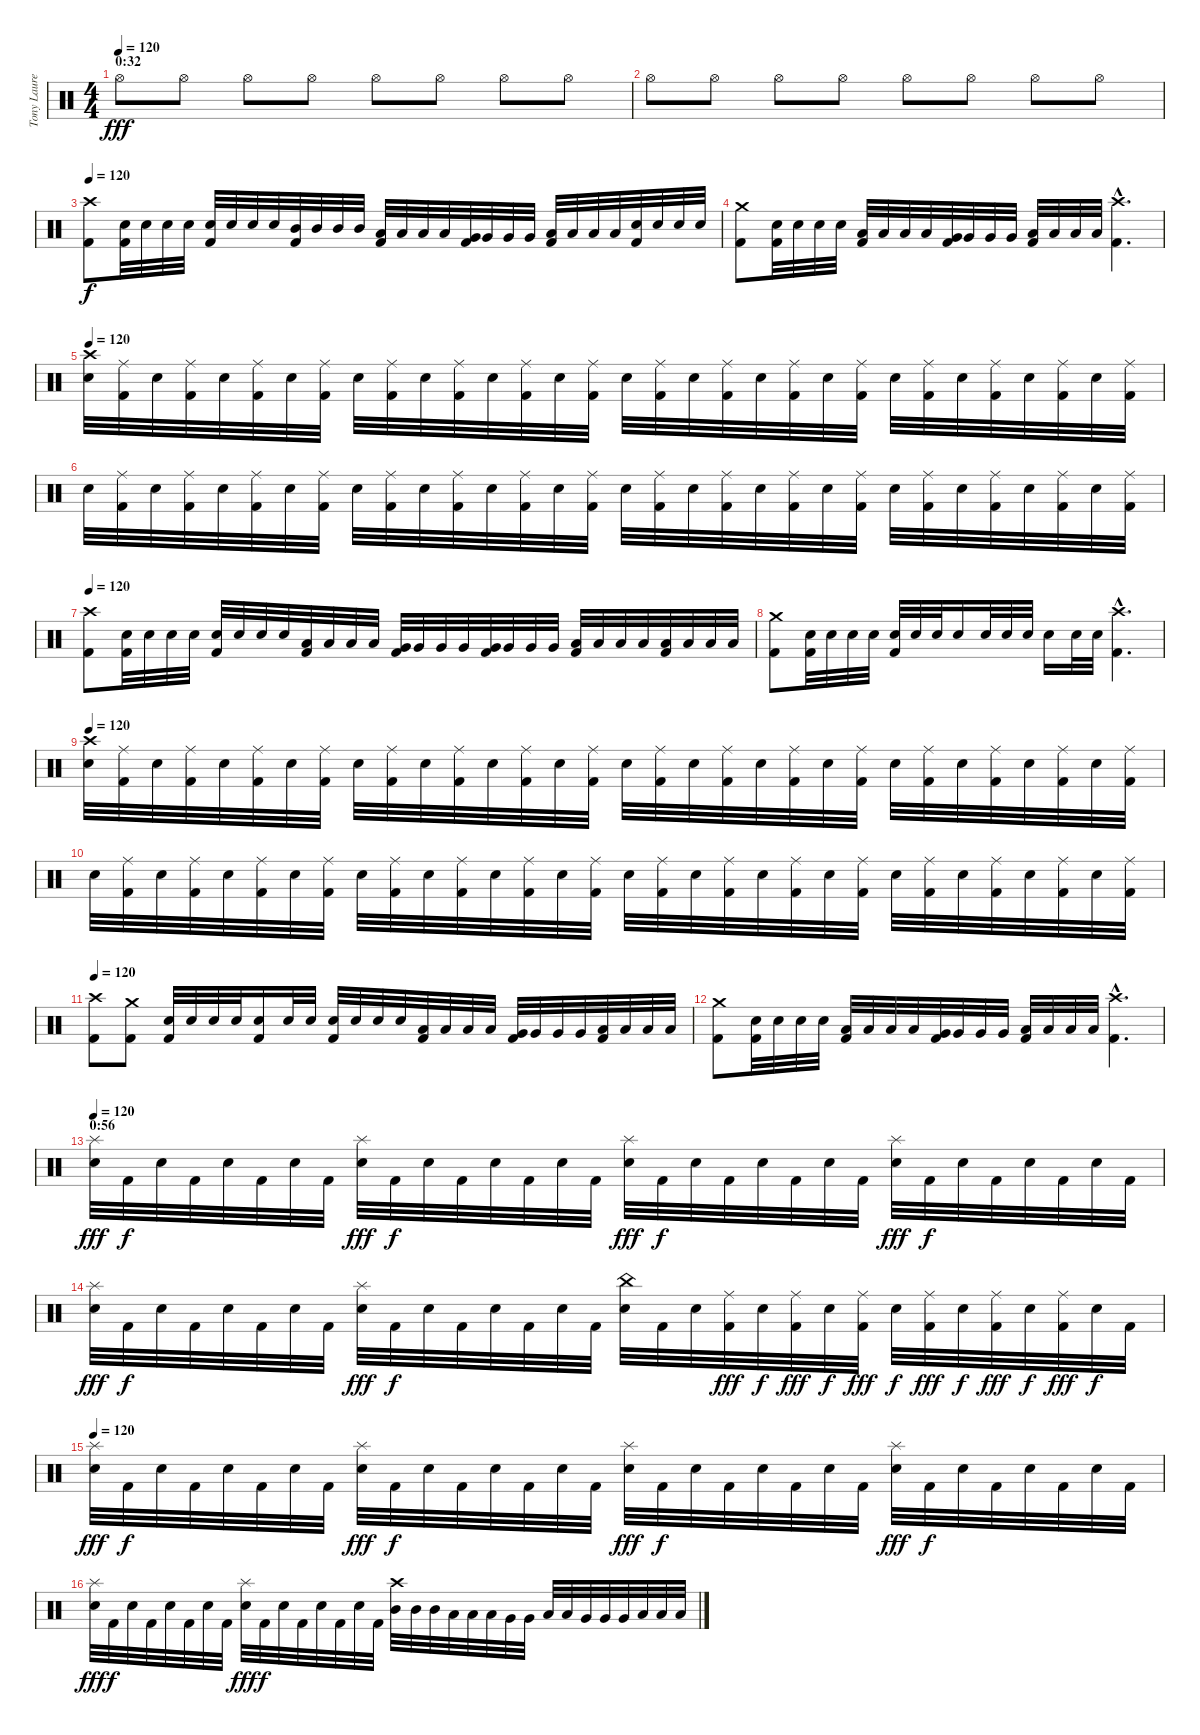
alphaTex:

\track ("Tony Laureano" "Tony Laure") {instrument percussion}
\staff {score}
\articulation defaults
\ts (4 4)
\section ("" "0:32")
\tempo 120
\clef neutral
\ks c "Hi-Hat (open)".8{dy fff} "Hi-Hat (open)".8 "Hi-Hat (open)".8 "Hi-Hat (open)".8 "Hi-Hat (open)".8 "Hi-Hat (open)".8 "Hi-Hat (open)".8 "Hi-Hat (open)".8
|
"Hi-Hat (open)".8 "Hi-Hat (open)".8 "Hi-Hat (open)".8 "Hi-Hat (open)".8 "Hi-Hat (open)".8 "Hi-Hat (open)".8 "Hi-Hat (open)".8 "Hi-Hat (open)".8 |
\tempo 120
("Crash high (hit)" "Kick (hit) 2").8{dy f} ("Electric Snare (hit)" "Kick (hit) 2").32 "Electric Snare (hit)".32 "Electric Snare (hit)".32 "Electric Snare (hit)".32 ("Electric Snare (hit)" "Kick (hit) 2").32 "Electric Snare (hit)".32 "Electric Snare (hit)".32 "Electric Snare (hit)".32 ("Mid Tom (hit)" "Kick (hit) 2").32 "Mid Tom (hit)".32 "Mid Tom (hit)".32 "Mid Tom (hit)".32 ("Low Tom (hit)" "Kick (hit) 2").32 "Low Tom (hit)".32 "Low Tom (hit)".32 "Low Tom (hit)".32 ("Very Low Tom (hit)" "Kick (hit) 2").32 "Very Low Tom (hit)".32 "Very Low Tom (hit)".32 "Very Low Tom (hit)".32 ("Low Floor Tom (hit)" "Kick (hit) 2").32 "Low Floor Tom (hit)".32 "Low Floor Tom (hit)".32 "Low Floor Tom (hit)".32 ("Electric Snare (hit)" "Kick (hit) 2").32 "Electric Snare (hit)".32 "Electric Snare (hit)".32 "Electric Snare (hit)".32 |
("Crash medium (hit)" "Kick (hit) 2").8 ("Electric Snare (hit)" "Kick (hit) 2").32 "Electric Snare (hit)".32 "Electric Snare (hit)".32 "Electric Snare (hit)".32 ("Low Tom (hit)" "Kick (hit) 2").32 "Low Tom (hit)".32 "Low Tom (hit)".32 "Low Tom (hit)".32 ("Very Low Tom (hit)" "Kick (hit) 2").32 "Very Low Tom (hit)".32 "Very Low Tom (hit)".32 "Very Low Tom (hit)".32 ("Low Floor Tom (hit)" "Kick (hit) 2").32 "Low Floor Tom (hit)".32 "Low Floor Tom (hit)".32 "Low Floor Tom (hit)".32 ("Crash high (hit)"{hac} "Kick (hit) 2"{hac}).4{d} |
\tempo 120
("Crash high (hit)" "Electric Snare (hit)").32 ("Ride (middle)" "Kick (hit) 2").32 "Electric Snare (hit)".32 ("Ride (middle)" "Kick (hit) 2").32 "Electric Snare (hit)".32 ("Ride (middle)" "Kick (hit) 2").32 "Electric Snare (hit)".32 ("Ride (middle)" "Kick (hit) 2").32 "Electric Snare (hit)".32 ("Ride (middle)" "Kick (hit) 2").32 "Electric Snare (hit)".32 ("Ride (middle)" "Kick (hit) 2").32 "Electric Snare (hit)".32 ("Ride (middle)" "Kick (hit) 2").32 "Electric Snare (hit)".32 ("Ride (middle)" "Kick (hit) 2").32 "Electric Snare (hit)".32 ("Ride (middle)" "Kick (hit) 2").32 "Electric Snare (hit)".32 ("Ride (middle)" "Kick (hit) 2").32 "Electric Snare (hit)".32 ("Ride (middle)" "Kick (hit) 2").32 "Electric Snare (hit)".32 ("Ride (middle)" "Kick (hit) 2").32 "Electric Snare (hit)".32 ("Ride (middle)" "Kick (hit) 2").32 "Electric Snare (hit)".32 ("Ride (middle)" "Kick (hit) 2").32 "Electric Snare (hit)".32 ("Ride (middle)" "Kick (hit) 2").32 "Electric Snare (hit)".32 ("Ride (middle)" "Kick (hit) 2").32 |
"Electric Snare (hit)".32 ("Ride (middle)" "Kick (hit) 2").32 "Electric Snare (hit)".32 ("Ride (middle)" "Kick (hit) 2").32 "Electric Snare (hit)".32 ("Ride (middle)" "Kick (hit) 2").32 "Electric Snare (hit)".32 ("Ride (middle)" "Kick (hit) 2").32 "Electric Snare (hit)".32 ("Ride (middle)" "Kick (hit) 2").32 "Electric Snare (hit)".32 ("Ride (middle)" "Kick (hit) 2").32 "Electric Snare (hit)".32 ("Ride (middle)" "Kick (hit) 2").32 "Electric Snare (hit)".32 ("Ride (middle)" "Kick (hit) 2").32 "Electric Snare (hit)".32 ("Ride (middle)" "Kick (hit) 2").32 "Electric Snare (hit)".32 ("Ride (middle)" "Kick (hit) 2").32 "Electric Snare (hit)".32 ("Ride (middle)" "Kick (hit) 2").32 "Electric Snare (hit)".32 ("Ride (middle)" "Kick (hit) 2").32 "Electric Snare (hit)".32 ("Ride (middle)" "Kick (hit) 2").32 "Electric Snare (hit)".32 ("Ride (middle)" "Kick (hit) 2").32 "Electric Snare (hit)".32 ("Ride (middle)" "Kick (hit) 2").32 "Electric Snare (hit)".32 ("Ride (middle)" "Kick (hit) 2").32 |
\tempo 120
("Crash high (hit)" "Kick (hit) 2").8 ("Electric Snare (hit)" "Kick (hit) 2").32 "Electric Snare (hit)".32 "Electric Snare (hit)".32 "Electric Snare (hit)".32 ("Electric Snare (hit)" "Kick (hit) 2").32 "Electric Snare (hit)".32 "Electric Snare (hit)".32 "Electric Snare (hit)".32 ("Low Tom (hit)" "Kick (hit) 2").32 "Low Tom (hit)".32 "Low Tom (hit)".32 "Low Tom (hit)".32 ("Very Low Tom (hit)" "Kick (hit) 2").32 "Very Low Tom (hit)".32 "Very Low Tom (hit)".32 "Very Low Tom (hit)".32 ("Very Low Tom (hit)" "Kick (hit) 2").32 "Very Low Tom (hit)".32 "Very Low Tom (hit)".32 "Very Low Tom (hit)".32 ("Low Floor Tom (hit)" "Kick (hit) 2").32 "Low Floor Tom (hit)".32 "Low Floor Tom (hit)".32 "Low Floor Tom (hit)".32 ("Low Floor Tom (hit)" "Kick (hit) 2").32 "Low Floor Tom (hit)".32 "Low Floor Tom (hit)".32 "Low Floor Tom (hit)".32 |
("Crash medium (hit)" "Kick (hit) 2").8 ("Electric Snare (hit)" "Kick (hit) 2").32 "Electric Snare (hit)".32 "Electric Snare (hit)".32 "Electric Snare (hit)".32 ("Electric Snare (hit)" "Kick (hit) 2").32 "Electric Snare (hit)".32 "Electric Snare (hit)".32 "Electric Snare (hit)".16 "Electric Snare (hit)".32 "Electric Snare (hit)".32 "Electric Snare (hit)".32 "Electric Snare (hit)".16 "Electric Snare (hit)".32 "Electric Snare (hit)".32 ("Crash high (hit)"{hac} "Kick (hit) 2"{hac}).4{d} |
\tempo 120
("Crash high (hit)" "Electric Snare (hit)").32 ("Ride (middle)" "Kick (hit) 2").32 "Electric Snare (hit)".32 ("Ride (middle)" "Kick (hit) 2").32 "Electric Snare (hit)".32 ("Ride (middle)" "Kick (hit) 2").32 "Electric Snare (hit)".32 ("Ride (middle)" "Kick (hit) 2").32 "Electric Snare (hit)".32 ("Ride (middle)" "Kick (hit) 2").32 "Electric Snare (hit)".32 ("Ride (middle)" "Kick (hit) 2").32 "Electric Snare (hit)".32 ("Ride (middle)" "Kick (hit) 2").32 "Electric Snare (hit)".32 ("Ride (middle)" "Kick (hit) 2").32 "Electric Snare (hit)".32 ("Ride (middle)" "Kick (hit) 2").32 "Electric Snare (hit)".32 ("Ride (middle)" "Kick (hit) 2").32 "Electric Snare (hit)".32 ("Ride (middle)" "Kick (hit) 2").32 "Electric Snare (hit)".32 ("Ride (middle)" "Kick (hit) 2").32 "Electric Snare (hit)".32 ("Ride (middle)" "Kick (hit) 2").32 "Electric Snare (hit)".32 ("Ride (middle)" "Kick (hit) 2").32 "Electric Snare (hit)".32 ("Ride (middle)" "Kick (hit) 2").32 "Electric Snare (hit)".32 ("Ride (middle)" "Kick (hit) 2").32 |
"Electric Snare (hit)".32 ("Ride (middle)" "Kick (hit) 2").32 "Electric Snare (hit)".32 ("Ride (middle)" "Kick (hit) 2").32 "Electric Snare (hit)".32 ("Ride (middle)" "Kick (hit) 2").32 "Electric Snare (hit)".32 ("Ride (middle)" "Kick (hit) 2").32 "Electric Snare (hit)".32 ("Ride (middle)" "Kick (hit) 2").32 "Electric Snare (hit)".32 ("Ride (middle)" "Kick (hit) 2").32 "Electric Snare (hit)".32 ("Ride (middle)" "Kick (hit) 2").32 "Electric Snare (hit)".32 ("Ride (middle)" "Kick (hit) 2").32 "Electric Snare (hit)".32 ("Ride (middle)" "Kick (hit) 2").32 "Electric Snare (hit)".32 ("Ride (middle)" "Kick (hit) 2").32 "Electric Snare (hit)".32 ("Ride (middle)" "Kick (hit) 2").32 "Electric Snare (hit)".32 ("Ride (middle)" "Kick (hit) 2").32 "Electric Snare (hit)".32 ("Ride (middle)" "Kick (hit) 2").32 "Electric Snare (hit)".32 ("Ride (middle)" "Kick (hit) 2").32 "Electric Snare (hit)".32 ("Ride (middle)" "Kick (hit) 2").32 "Electric Snare (hit)".32 ("Ride (middle)" "Kick (hit) 2").32 |
\tempo 120
("Crash high (hit)" "Kick (hit) 2").8 ("Crash medium (hit)" "Kick (hit) 2").8 ("Electric Snare (hit)" "Kick (hit) 2").32 "Electric Snare (hit)".32 "Electric Snare (hit)".32 "Electric Snare (hit)".32 ("Electric Snare (hit)" "Kick (hit) 2").16 "Electric Snare (hit)".32 "Electric Snare (hit)".32 ("Electric Snare (hit)" "Kick (hit) 2").32 "Electric Snare (hit)".32 "Electric Snare (hit)".32 "Electric Snare (hit)".32 ("Low Tom (hit)" "Kick (hit) 2").32 "Low Tom (hit)".32 "Low Tom (hit)".32 "Low Tom (hit)".32 ("Very Low Tom (hit)" "Kick (hit) 2").32 "Very Low Tom (hit)".32 "Very Low Tom (hit)".32 "Very Low Tom (hit)".32 ("Low Floor Tom (hit)" "Kick (hit) 2").32 "Low Floor Tom (hit)".32 "Low Floor Tom (hit)".32 "Low Floor Tom (hit)".32 |
("Crash medium (hit)" "Kick (hit) 2").8 ("Electric Snare (hit)" "Kick (hit) 2").32 "Electric Snare (hit)".32 "Electric Snare (hit)".32 "Electric Snare (hit)".32 ("Low Tom (hit)" "Kick (hit) 2").32 "Low Tom (hit)".32 "Low Tom (hit)".32 "Low Tom (hit)".32 ("Very Low Tom (hit)" "Kick (hit) 2").32 "Very Low Tom (hit)".32 "Very Low Tom (hit)".32 "Very Low Tom (hit)".32 ("Low Floor Tom (hit)" "Kick (hit) 2").32 "Low Floor Tom (hit)".32 "Low Floor Tom (hit)".32 "Low Floor Tom (hit)".32 ("Crash high (hit)"{hac} "Kick (hit) 2"{hac}).4{d} |
\section ("" "0:56")
\tempo 120
("Splash (hit)" "Electric Snare (hit)").32{dy fff} "Kick (hit) 2".32{dy f} "Electric Snare (hit)".32 "Kick (hit) 2".32 "Electric Snare (hit)".32 "Kick (hit) 2".32 "Electric Snare (hit)".32 "Kick (hit) 2".32 ("Splash (hit)" "Electric Snare (hit)").32{dy fff} "Kick (hit) 2".32{dy f} "Electric Snare (hit)".32 "Kick (hit) 2".32 "Electric Snare (hit)".32 "Kick (hit) 2".32 "Electric Snare (hit)".32 "Kick (hit) 2".32 ("Splash (hit)" "Electric Snare (hit)").32{dy fff} "Kick (hit) 2".32{dy f} "Electric Snare (hit)".32 "Kick (hit) 2".32 "Electric Snare (hit)".32 "Kick (hit) 2".32 "Electric Snare (hit)".32 "Kick (hit) 2".32 ("Splash (hit)" "Electric Snare (hit)").32{dy fff} "Kick (hit) 2".32{dy f} "Electric Snare (hit)".32 "Kick (hit) 2".32 "Electric Snare (hit)".32 "Kick (hit) 2".32 "Electric Snare (hit)".32 "Kick (hit) 2".32 |
("Splash (hit)" "Electric Snare (hit)").32{dy fff} "Kick (hit) 2".32{dy f} "Electric Snare (hit)".32 "Kick (hit) 2".32 "Electric Snare (hit)".32 "Kick (hit) 2".32 "Electric Snare (hit)".32 "Kick (hit) 2".32 ("Splash (hit)" "Electric Snare (hit)").32{dy fff} "Kick (hit) 2".32{dy f} "Electric Snare (hit)".32 "Kick (hit) 2".32 "Electric Snare (hit)".32 "Kick (hit) 2".32 "Electric Snare (hit)".32 "Kick (hit) 2".32 ("China (hit)" "Electric Snare (hit)").32 "Kick (hit) 2".32 "Electric Snare (hit)".32 ("Ride (middle)" "Kick (hit) 2").32{dy fff} "Electric Snare (hit)".32{dy f} ("Ride (middle)" "Kick (hit) 2").32{dy fff} "Electric Snare (hit)".32{dy f} ("Ride (middle)" "Kick (hit) 2").32{dy fff} "Electric Snare (hit)".32{dy f} ("Ride (middle)" "Kick (hit) 2").32{dy fff} "Electric Snare (hit)".32{dy f} ("Ride (middle)" "Kick (hit) 2").32{dy fff} "Electric Snare (hit)".32{dy f} ("Ride (middle)" "Kick (hit) 2").32{dy fff} "Electric Snare (hit)".32{dy f} "Kick (hit) 2".32 |
\tempo 120
("Splash (hit)" "Electric Snare (hit)").32{dy fff} "Kick (hit) 2".32{dy f} "Electric Snare (hit)".32 "Kick (hit) 2".32 "Electric Snare (hit)".32 "Kick (hit) 2".32 "Electric Snare (hit)".32 "Kick (hit) 2".32 ("Splash (hit)" "Electric Snare (hit)").32{dy fff} "Kick (hit) 2".32{dy f} "Electric Snare (hit)".32 "Kick (hit) 2".32 "Electric Snare (hit)".32 "Kick (hit) 2".32 "Electric Snare (hit)".32 "Kick (hit) 2".32 ("Splash (hit)" "Electric Snare (hit)").32{dy fff} "Kick (hit) 2".32{dy f} "Electric Snare (hit)".32 "Kick (hit) 2".32 "Electric Snare (hit)".32 "Kick (hit) 2".32 "Electric Snare (hit)".32 "Kick (hit) 2".32 ("Splash (hit)" "Electric Snare (hit)").32{dy fff} "Kick (hit) 2".32{dy f} "Electric Snare (hit)".32 "Kick (hit) 2".32 "Electric Snare (hit)".32 "Kick (hit) 2".32 "Electric Snare (hit)".32 "Kick (hit) 2".32 |
("Splash (hit)" "Electric Snare (hit)").32{dy fff} "Kick (hit) 2".32{dy f} "Electric Snare (hit)".32 "Kick (hit) 2".32 "Electric Snare (hit)".32 "Kick (hit) 2".32 "Electric Snare (hit)".32 "Kick (hit) 2".32 ("Splash (hit)" "Electric Snare (hit)").32{dy fff} "Kick (hit) 2".32{dy f} "Electric Snare (hit)".32 "Kick (hit) 2".32 "Electric Snare (hit)".32 "Kick (hit) 2".32 "Electric Snare (hit)".32 "Kick (hit) 2".32 ("Crash high (hit)" "Mid Tom (hit)").32 "Mid Tom (hit)".32 "Mid Tom (hit)".32 "Low Tom (hit)".32 "Low Tom (hit)".32 "Low Tom (hit)".32 "Very Low Tom (hit)".32 "Very Low Tom (hit)".32 "Low Tom (hit)".32 "Low Tom (hit)".32 "Very Low Tom (hit)".32 "Very Low Tom (hit)".32 "Very Low Tom (hit)".32 "Low Floor Tom (hit)".32 "Low Floor Tom (hit)".32 "Low Floor Tom (hit)".32
